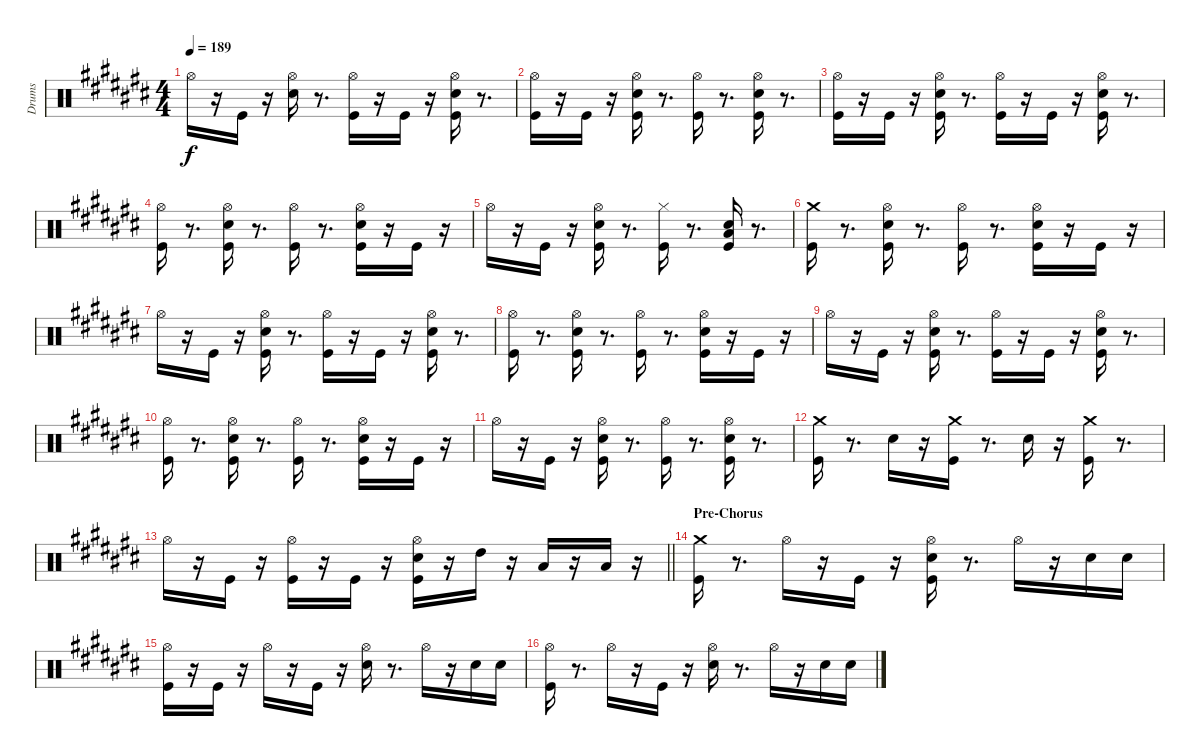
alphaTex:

\track ("Drums" "Drums") {instrument percussion}
\staff {score}
\articulation defaults
\ts (4 4)
\tempo 189
\clef neutral
\ks a#minor "Hi-Hat (open)".16{dy f}
r.16 "Kick (hit)".16 r.16 ("Hi-Hat (open)" "Electric Snare (hit)").16 r.8{d} ("Hi-Hat (open)" "Kick (hit)").16 r.16 "Kick (hit)".16 r.16 ("Hi-Hat (open)" "Electric Snare (hit)" "Kick (hit)").16 r.8{d} |
\ks c#
("Hi-Hat (open)" "Kick (hit)").16 r.16 "Kick (hit)".16 r.16 ("Hi-Hat (open)" "Electric Snare (hit)" "Kick (hit)").16 r.8{d} ("Hi-Hat (open)" "Kick (hit)").16 r.8{d} ("Hi-Hat (open)" "Electric Snare (hit)" "Kick (hit)").16 r.8{d} |
\ks a#minor
("Hi-Hat (open)" "Kick (hit)").16 r.16 "Kick (hit)".16 r.16 ("Hi-Hat (open)" "Electric Snare (hit)" "Kick (hit)").16 r.8{d} ("Hi-Hat (open)" "Kick (hit)").16 r.16 "Kick (hit)".16 r.16 ("Hi-Hat (open)" "Electric Snare (hit)" "Kick (hit)").16 r.8{d} |
("Hi-Hat (open)" "Kick (hit)").16 r.8{d} ("Hi-Hat (open)" "Electric Snare (hit)" "Kick (hit)").16 r.8{d} ("Hi-Hat (open)" "Kick (hit)").16 r.8{d} ("Hi-Hat (open)" "Electric Snare (hit)" "Kick (hit)").16 r.16 "Kick (hit)".16 r.16 |
"Hi-Hat (open)".16 r.16 "Kick (hit)".16 r.16 ("Hi-Hat (open)" "Electric Snare (hit)" "Kick (hit)").16 r.8{d} ("Hi-Hat (closed)" "Kick (hit)").16 r.8{d} ("Electric Snare (hit)" "Low Floor Tom (hit)" "Kick (hit)").16 r.8{d} |
\ks c#
("Crash medium (hit)" "Kick (hit)").16 r.8{d} ("Hi-Hat (open)" "Electric Snare (hit)" "Kick (hit)").16 r.8{d} ("Hi-Hat (open)" "Kick (hit)").16 r.8{d} ("Hi-Hat (open)" "Electric Snare (hit)" "Kick (hit)").16 r.16 "Kick (hit)".16 r.16 |
\ks a#minor "Hi-Hat (open)".16
r.16 "Kick (hit)".16 r.16 ("Hi-Hat (open)" "Electric Snare (hit)" "Kick (hit)").16 r.8{d} ("Hi-Hat (open)" "Kick (hit)").16 r.16 "Kick (hit)".16 r.16 ("Hi-Hat (open)" "Electric Snare (hit)" "Kick (hit)").16 r.8{d} |
("Hi-Hat (open)" "Kick (hit)").16 r.8{d} ("Hi-Hat (open)" "Electric Snare (hit)" "Kick (hit)").16 r.8{d} ("Hi-Hat (open)" "Kick (hit)").16 r.8{d} ("Hi-Hat (open)" "Electric Snare (hit)" "Kick (hit)").16 r.16 "Kick (hit)".16 r.16 |
"Hi-Hat (open)".16 r.16 "Kick (hit)".16 r.16 ("Hi-Hat (open)" "Electric Snare (hit)" "Kick (hit)").16 r.8{d} ("Hi-Hat (open)" "Kick (hit)").16 r.16 "Kick (hit)".16 r.16 ("Hi-Hat (open)" "Electric Snare (hit)" "Kick (hit)").16 r.8{d} |
\ks c#
("Hi-Hat (open)" "Kick (hit)").16 r.8{d} ("Hi-Hat (open)" "Electric Snare (hit)" "Kick (hit)").16 r.8{d} ("Hi-Hat (open)" "Kick (hit)").16 r.8{d} ("Hi-Hat (open)" "Electric Snare (hit)" "Kick (hit)").16 r.16 "Kick (hit)".16 r.16 |
\ks a#minor "Hi-Hat (open)".16
r.16 "Kick (hit)".16 r.16 ("Hi-Hat (open)" "Electric Snare (hit)" "Kick (hit)").16 r.8{d} ("Hi-Hat (open)" "Kick (hit)").16 r.8{d} ("Hi-Hat (open)" "Electric Snare (hit)" "Kick (hit)").16 r.8{d} |
("Crash medium (hit)" "Kick (hit)").16 r.8{d} "Electric Snare (hit)".16 r.16 ("Crash medium (hit)" "Kick (hit)").16 r.8{d} "Electric Snare (hit)".16 r.16 ("Crash medium (hit)" "Kick (hit)").16 r.8{d} |
\barLineRight lightlight "Hi-Hat (open)".16
r.16 "Kick (hit)".16 r.16 ("Hi-Hat (open)" "Kick (hit)").16 r.16 "Kick (hit)".16 r.16 ("Hi-Hat (open)" "Electric Snare (hit)" "Kick (hit)").16 r.16 "High Tom (hit)".16 r.16 "Low Tom (hit)".16 r.16 "Low Floor Tom (hit)".16 r.16 |
\section ("" "Pre-Chorus")
\ks c#
("Crash medium (hit)" "Kick (hit)").16 r.8{d} "Hi-Hat (open)".16 r.16 "Kick (hit)".16 r.16 ("Hi-Hat (open)" "Electric Snare (hit)" "Kick (hit)").16 r.8{d} "Hi-Hat (open)".16 r.16 "Electric Snare (hit)".16 "Electric Snare (hit)".16 |
\ks a#minor
("Hi-Hat (open)" "Kick (hit)").16 r.16 "Kick (hit)".16 r.16 "Hi-Hat (open)".16 r.16 "Kick (hit)".16 r.16 ("Hi-Hat (open)" "Electric Snare (hit)").16 r.8{d} "Hi-Hat (open)".16 r.16 "Electric Snare (hit)".16 "Electric Snare (hit)".16 |
("Hi-Hat (open)" "Kick (hit)").16 r.8{d} "Hi-Hat (open)".16 r.16 "Kick (hit)".16 r.16 ("Hi-Hat (open)" "Electric Snare (hit)").16 r.8{d} "Hi-Hat (open)".16 r.16 "Electric Snare (hit)".16 "Electric Snare (hit)".16
